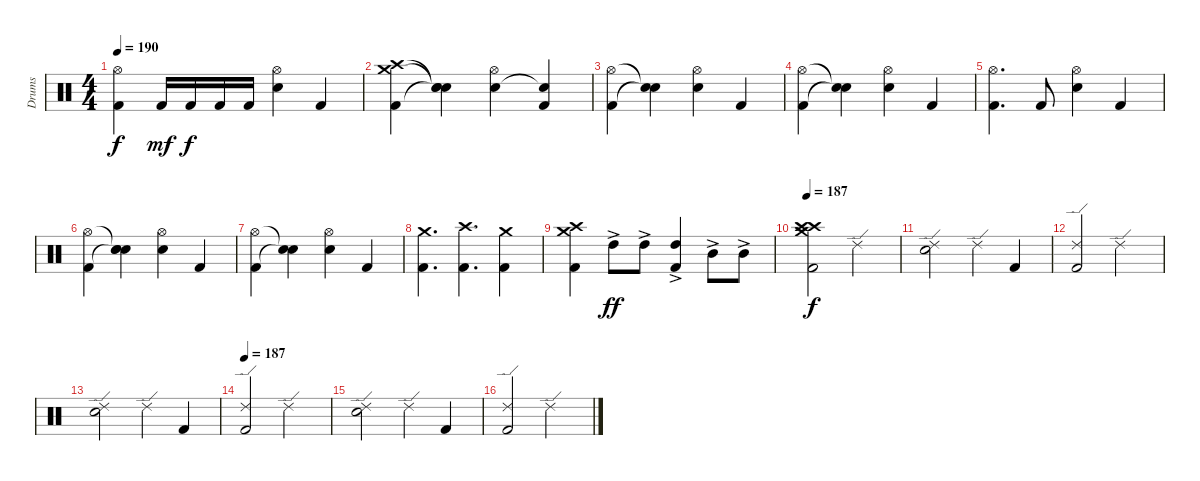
\track ("Drums" "Drums") {instrument percussion}
\staff {score}
\articulation defaults
\ts (4 4)
\tempo 190
\clef neutral
\ks c
("Hi-Hat (open)" "Kick (hit) 2").4{dy f} "Kick (hit) 2".16{dy mf} "Kick (hit) 2".16{dy f} "Kick (hit) 2".16 "Kick (hit) 2".16 ("Hi-Hat (open)" "Snare (hit) 2").4 "Kick (hit) 2".4 |
("Crash high (hit)" "Crash medium (hit)" "Kick (hit) 2").4 ("Snare (hit)"{t} "Snare (hit)"{t} "Snare (hit)"{t}).4 ("Hi-Hat (open)" "Snare (hit) 2").4 ("Kick (hit) 2" "Snare (hit)"{t}).4 |
("Hi-Hat (open)" "Kick (hit) 2").4 ("Snare (hit)"{t} "Snare (hit)"{t}).4 ("Hi-Hat (open)" "Snare (hit) 2").4 "Kick (hit) 2".4 |
("Hi-Hat (open)" "Kick (hit) 2").4 ("Snare (hit)"{t} "Snare (hit)"{t}).4 ("Hi-Hat (open)" "Snare (hit) 2").4 "Kick (hit) 2".4 |
("Hi-Hat (open)" "Kick (hit) 2").4{d} "Kick (hit) 2".8 ("Hi-Hat (open)" "Snare (hit) 2").4 "Kick (hit) 2".4 |
("Hi-Hat (open)" "Kick (hit) 2").4 ("Snare (hit)"{t} "Snare (hit)"{t} "Snare (hit)").4 ("Hi-Hat (open)" "Snare (hit) 2").4 "Kick (hit) 2".4 |
("Hi-Hat (open)" "Kick (hit) 2").4 ("Snare (hit)"{t} "Snare (hit)"{t}).4 ("Hi-Hat (open)" "Snare (hit) 2").4 "Kick (hit) 2".4 |
("Crash medium (hit)" "Kick (hit) 2").4{d} ("Crash high (hit)" "Kick (hit) 2").4{d} ("Crash medium (hit)" "Kick (hit) 2").4 |
("Crash medium (hit)" "Crash high (hit)" "Kick (hit) 2").4 "High Tom (hit)"{ac}.8{dy ff} "High Tom (hit)"{ac}.8 ("High Tom (hit)"{ac} "Kick (hit) 2").4 "Mid Tom (hit)"{ac}.8 "Mid Tom (hit)"{ac}.8 |
\tempo 187
("Crash high (hit)" "Crash high (hit)" "Crash medium (hit)" "Kick (hit) 2").2{dy f} "Ride (edge) 2".2 |
("Ride (edge) 2" "Snare (hit) 2").2 "Ride (edge) 2".4 "Kick (hit) 2".4 |
("Kick (hit) 2" "Ride (edge) 2").2 "Ride (edge) 2".2 |
("Ride (edge) 2" "Snare (hit) 2").2 "Ride (edge) 2".4 "Kick (hit) 2".4 |
\tempo 187
("Kick (hit) 2" "Ride (edge) 2").2 "Ride (edge) 2".2 |
("Ride (edge) 2" "Snare (hit) 2").2 "Ride (edge) 2".4 "Kick (hit) 2".4 |
("Kick (hit) 2" "Ride (edge) 2").2 "Ride (edge) 2".2
